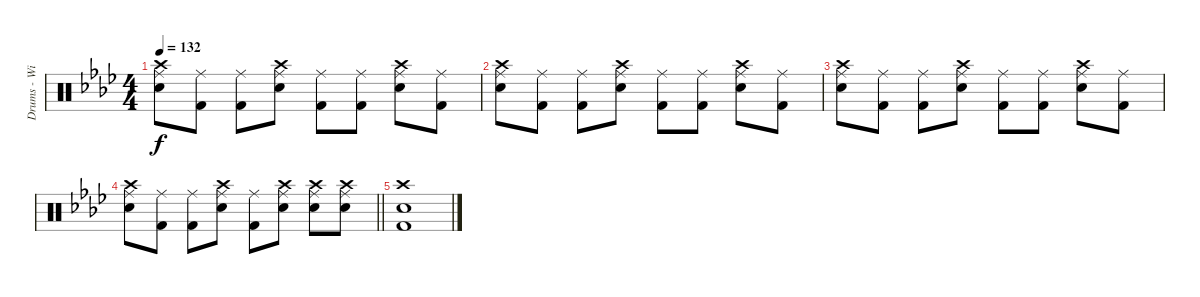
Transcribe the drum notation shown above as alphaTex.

\track ("Drums - Will" "Drums - Wi") {instrument percussion}
\staff {score}
\articulation defaults
\ts (4 4)
\tempo 132
\clef neutral
\ks ab
("Crash high (hit)" "Ride (middle)" "Electric Snare (hit)").8{dy f} ("Ride (middle)" "Kick (hit) 2").8 ("Ride (middle)" "Kick (hit) 2").8 ("Crash high (hit)" "Ride (middle)" "Electric Snare (hit)").8 ("Ride (middle)" "Kick (hit) 2").8 ("Ride (middle)" "Kick (hit) 2").8 ("Crash high (hit)" "Ride (middle)" "Electric Snare (hit)").8 ("Ride (middle)" "Kick (hit) 2").8 |
("Crash high (hit)" "Ride (middle)" "Electric Snare (hit)").8 ("Ride (middle)" "Kick (hit) 2").8 ("Ride (middle)" "Kick (hit) 2").8 ("Crash high (hit)" "Ride (middle)" "Electric Snare (hit)").8 ("Ride (middle)" "Kick (hit) 2").8 ("Ride (middle)" "Kick (hit) 2").8 ("Crash high (hit)" "Ride (middle)" "Electric Snare (hit)").8 ("Ride (middle)" "Kick (hit) 2").8 |
("Crash high (hit)" "Ride (middle)" "Electric Snare (hit)").8 ("Ride (middle)" "Kick (hit) 2").8 ("Ride (middle)" "Kick (hit) 2").8 ("Crash high (hit)" "Ride (middle)" "Electric Snare (hit)").8 ("Ride (middle)" "Kick (hit) 2").8 ("Ride (middle)" "Kick (hit) 2").8 ("Crash high (hit)" "Ride (middle)" "Electric Snare (hit)").8 ("Ride (middle)" "Kick (hit) 2").8 |
\barLineRight lightlight
("Crash high (hit)" "Ride (middle)" "Electric Snare (hit)").8 ("Ride (middle)" "Kick (hit) 2").8 ("Ride (middle)" "Kick (hit) 2").8 ("Crash high (hit)" "Ride (middle)" "Electric Snare (hit)").8 ("Ride (middle)" "Kick (hit) 2").8 ("Crash high (hit)" "Ride (middle)" "Electric Snare (hit)").8 ("Crash high (hit)" "Ride (middle)" "Electric Snare (hit)").8 ("Crash high (hit)" "Ride (middle)" "Electric Snare (hit)").8 |
("Crash high (hit)" "Kick (hit) 2" "Electric Snare (hit)").1
